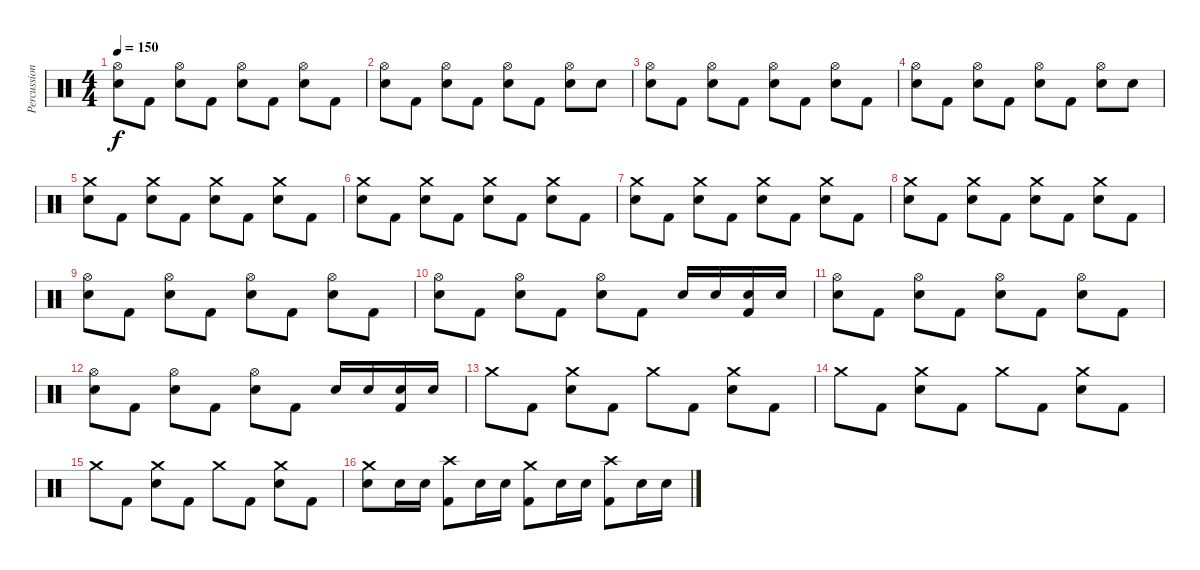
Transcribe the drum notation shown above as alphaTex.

\track ("Percussion" "Percussion") {instrument percussion}
\staff {score}
\articulation defaults
\ts (4 4)
\tempo 150
\clef neutral
\ks c
("Hi-Hat (open)" "Snare (hit) 2").8{dy f} "Kick (hit) 2".8 ("Hi-Hat (open)" "Snare (hit) 2").8 "Kick (hit) 2".8 ("Hi-Hat (open)" "Snare (hit) 2").8 "Kick (hit) 2".8 ("Hi-Hat (open)" "Snare (hit) 2").8 "Kick (hit) 2".8 |
("Hi-Hat (open)" "Snare (hit) 2").8 "Kick (hit) 2".8 ("Hi-Hat (open)" "Snare (hit) 2").8 "Kick (hit) 2".8 ("Hi-Hat (open)" "Snare (hit) 2").8 "Kick (hit) 2".8 ("Hi-Hat (open)" "Snare (hit) 2").8 "Snare (hit) 2".8 |
("Hi-Hat (open)" "Snare (hit) 2").8 "Kick (hit) 2".8 ("Hi-Hat (open)" "Snare (hit) 2").8 "Kick (hit) 2".8 ("Hi-Hat (open)" "Snare (hit) 2").8 "Kick (hit) 2".8 ("Hi-Hat (open)" "Snare (hit) 2").8 "Kick (hit) 2".8 |
("Hi-Hat (open)" "Snare (hit) 2").8 "Kick (hit) 2".8 ("Hi-Hat (open)" "Snare (hit) 2").8 "Kick (hit) 2".8 ("Hi-Hat (open)" "Snare (hit) 2").8 "Kick (hit) 2".8 ("Hi-Hat (open)" "Snare (hit) 2").8 "Snare (hit) 2".8 |
("Crash medium (hit)" "Snare (hit) 2").8 "Kick (hit) 2".8 ("Crash medium (hit)" "Snare (hit) 2").8 "Kick (hit) 2".8 ("Crash medium (hit)" "Snare (hit) 2").8 "Kick (hit) 2".8 ("Crash medium (hit)" "Snare (hit) 2").8 "Kick (hit) 2".8 |
("Crash medium (hit)" "Snare (hit) 2").8 "Kick (hit) 2".8 ("Crash medium (hit)" "Snare (hit) 2").8 "Kick (hit) 2".8 ("Crash medium (hit)" "Snare (hit) 2").8 "Kick (hit) 2".8 ("Crash medium (hit)" "Snare (hit) 2").8 "Kick (hit) 2".8 |
("Crash medium (hit)" "Snare (hit) 2").8 "Kick (hit) 2".8 ("Crash medium (hit)" "Snare (hit) 2").8 "Kick (hit) 2".8 ("Crash medium (hit)" "Snare (hit) 2").8 "Kick (hit) 2".8 ("Crash medium (hit)" "Snare (hit) 2").8 "Kick (hit) 2".8 |
("Crash medium (hit)" "Snare (hit) 2").8 "Kick (hit) 2".8 ("Crash medium (hit)" "Snare (hit) 2").8 "Kick (hit) 2".8 ("Crash medium (hit)" "Snare (hit) 2").8 "Kick (hit) 2".8 ("Crash medium (hit)" "Snare (hit) 2").8 "Kick (hit) 2".8 |
("Hi-Hat (open)" "Snare (hit) 2").8 "Kick (hit) 2".8 ("Hi-Hat (open)" "Snare (hit) 2").8 "Kick (hit) 2".8 ("Hi-Hat (open)" "Snare (hit) 2").8 "Kick (hit) 2".8 ("Hi-Hat (open)" "Snare (hit) 2").8 "Kick (hit) 2".8 |
("Hi-Hat (open)" "Snare (hit) 2").8 "Kick (hit) 2".8 ("Hi-Hat (open)" "Snare (hit) 2").8 "Kick (hit) 2".8 ("Hi-Hat (open)" "Snare (hit) 2").8 "Kick (hit) 2".8 "Snare (hit) 2".16 "Snare (hit) 2".16 ("Snare (hit) 2" "Kick (hit) 2").16 "Snare (hit) 2".16 |
("Hi-Hat (open)" "Snare (hit) 2").8 "Kick (hit) 2".8 ("Hi-Hat (open)" "Snare (hit) 2").8 "Kick (hit) 2".8 ("Hi-Hat (open)" "Snare (hit) 2").8 "Kick (hit) 2".8 ("Hi-Hat (open)" "Snare (hit) 2").8 "Kick (hit) 2".8 |
("Hi-Hat (open)" "Snare (hit) 2").8 "Kick (hit) 2".8 ("Hi-Hat (open)" "Snare (hit) 2").8 "Kick (hit) 2".8 ("Hi-Hat (open)" "Snare (hit) 2").8 "Kick (hit) 2".8 "Snare (hit) 2".16 "Snare (hit) 2".16 ("Snare (hit) 2" "Kick (hit) 2").16 "Snare (hit) 2".16 |
"Crash medium (hit)".8 "Kick (hit) 2".8 ("Crash medium (hit)" "Snare (hit) 2").8 "Kick (hit) 2".8 "Crash medium (hit)".8 "Kick (hit) 2".8 ("Crash medium (hit)" "Snare (hit) 2").8 "Kick (hit) 2".8 |
"Crash medium (hit)".8 "Kick (hit) 2".8 ("Crash medium (hit)" "Snare (hit) 2").8 "Kick (hit) 2".8 "Crash medium (hit)".8 "Kick (hit) 2".8 ("Crash medium (hit)" "Snare (hit) 2").8 "Kick (hit) 2".8 |
"Crash medium (hit)".8 "Kick (hit) 2".8 ("Crash medium (hit)" "Snare (hit) 2").8 "Kick (hit) 2".8 "Crash medium (hit)".8 "Kick (hit) 2".8 ("Crash medium (hit)" "Snare (hit) 2").8 "Kick (hit) 2".8 |
("Crash medium (hit)" "Snare (hit) 2").8 "Snare (hit) 2".16 "Snare (hit) 2".16 ("Crash high (hit)" "Kick (hit) 2").8 "Snare (hit) 2".16 "Snare (hit) 2".16 ("Crash medium (hit)" "Kick (hit) 2").8 "Snare (hit) 2".16 "Snare (hit) 2".16 ("Crash high (hit)" "Kick (hit) 2").8 "Snare (hit) 2".16 "Snare (hit) 2".16
